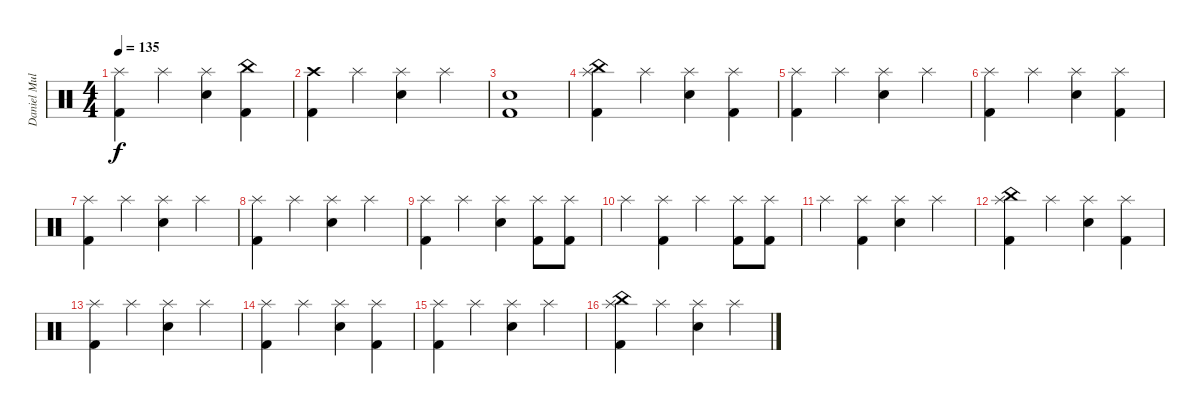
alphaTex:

\track ("Daniel Mullback" "Daniel Mul") {instrument percussion}
\staff {score}
\articulation defaults
\ts (4 4)
\tempo 135
\clef neutral
\ks c
("Splash (hit)" "Kick (hit) 2").4{dy f} "Splash (hit)".4 ("Splash (hit)" "Snare (hit) 2").4 ("China (hit)" "Kick (hit) 2").4 |
("Crash high (hit)" "Kick (hit) 2").4 "Splash (hit)".4 ("Splash (hit)" "Snare (hit) 2").4 "Splash (hit)".4 |
("Snare (hit) 2" "Kick (hit) 2").1 |
("Splash (hit)" "China (hit)" "Kick (hit) 2").4 "Splash (hit)".4 ("Splash (hit)" "Snare (hit) 2").4 ("Splash (hit)" "Kick (hit) 2").4 |
("Splash (hit)" "Kick (hit) 2").4 "Splash (hit)".4 ("Splash (hit)" "Snare (hit) 2").4 "Splash (hit)".4 |
("Splash (hit)" "Kick (hit) 2").4 "Splash (hit)".4 ("Splash (hit)" "Snare (hit) 2").4 ("Splash (hit)" "Kick (hit) 2").4 |
("Splash (hit)" "Kick (hit) 2").4 "Splash (hit)".4 ("Splash (hit)" "Snare (hit) 2").4 "Splash (hit)".4 |
("Splash (hit)" "Kick (hit) 2").4 "Splash (hit)".4 ("Splash (hit)" "Snare (hit) 2").4 "Splash (hit)".4 |
("Splash (hit)" "Kick (hit) 2").4 "Splash (hit)".4 ("Splash (hit)" "Snare (hit) 2").4 ("Splash (hit)" "Kick (hit) 2").8 ("Splash (hit)" "Kick (hit) 2").8 |
"Splash (hit)".4 ("Splash (hit)" "Kick (hit) 2").4 "Splash (hit)".4 ("Splash (hit)" "Kick (hit) 2").8 ("Splash (hit)" "Kick (hit) 2").8 |
"Splash (hit)".4 ("Splash (hit)" "Kick (hit) 2").4 ("Splash (hit)" "Snare (hit) 2").4 "Splash (hit)".4 |
("Splash (hit)" "China (hit)" "Kick (hit) 2").4 "Splash (hit)".4 ("Splash (hit)" "Snare (hit) 2").4 ("Splash (hit)" "Kick (hit) 2").4 |
("Splash (hit)" "Kick (hit) 2").4 "Splash (hit)".4 ("Splash (hit)" "Snare (hit) 2").4 "Splash (hit)".4 |
("Splash (hit)" "Kick (hit) 2").4 "Splash (hit)".4 ("Splash (hit)" "Snare (hit) 2").4 ("Splash (hit)" "Kick (hit) 2").4 |
("Splash (hit)" "Kick (hit) 2").4 "Splash (hit)".4 ("Splash (hit)" "Snare (hit) 2").4 "Splash (hit)".4 |
("Splash (hit)" "China (hit)" "Kick (hit) 2").4 "Splash (hit)".4 ("Splash (hit)" "Snare (hit) 2").4 "Splash (hit)".4
